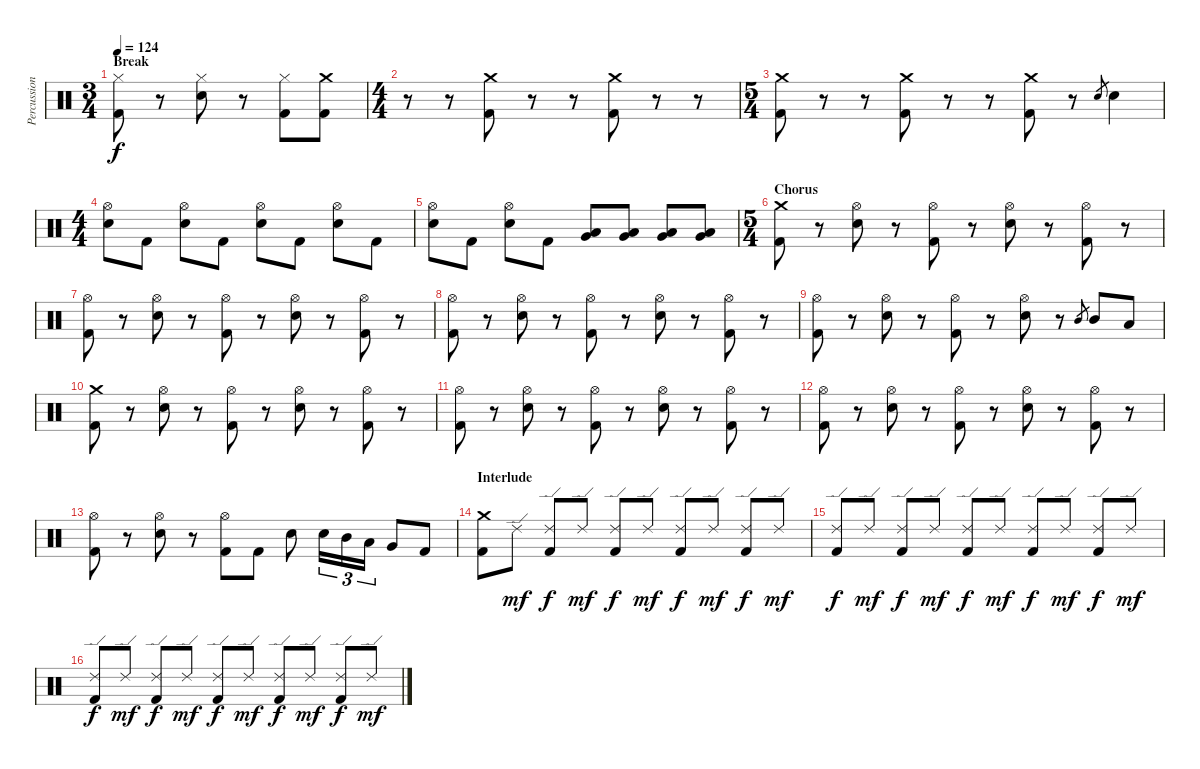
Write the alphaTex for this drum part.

\track ("Percussion" "Percussion") {instrument percussion}
\staff {score}
\articulation defaults
\ts (3 4)
\section ("" "Break")
\tempo 124
\clef neutral
\ks c
("Hi-Hat (closed)" "Kick (hit) 2").8{dy f} r.8 ("Hi-Hat (closed)" "Snare (hit) 2").8 r.8 ("Hi-Hat (closed)" "Kick (hit) 2").8 ("Crash medium (hit)" "Kick (hit) 2").8 |
\ts (4 4)
r.8 r.8 ("Crash medium (hit)" "Kick (hit) 2").8 r.8 r.8 ("Crash medium (hit)" "Kick (hit) 2").8 r.8 r.8 |
\ts (5 4)
("Crash medium (hit)" "Kick (hit) 2").8 r.8 r.8 ("Crash medium (hit)" "Kick (hit) 2").8 r.8 r.8 ("Crash medium (hit)" "Kick (hit) 2").8 r.8 "Snare (hit) 2".8{gr} "Snare (hit) 2".4 |
\ts (4 4)
("Hi-Hat (open)" "Snare (hit) 2").8 "Kick (hit) 2".8 ("Hi-Hat (open)" "Snare (hit) 2").8 "Kick (hit) 2".8 ("Hi-Hat (open)" "Snare (hit) 2").8 "Kick (hit) 2".8 ("Hi-Hat (open)" "Snare (hit) 2").8 "Kick (hit) 2".8 |
("Hi-Hat (open)" "Snare (hit) 2").8 "Kick (hit) 2".8 ("Hi-Hat (open)" "Snare (hit) 2").8 "Kick (hit) 2".8 ("Low Tom (hit)" "Very Low Tom (hit)").8 ("Low Tom (hit)" "Very Low Tom (hit)").8 ("Low Tom (hit)" "Very Low Tom (hit)").8 ("Low Tom (hit)" "Very Low Tom (hit)").8 |
\ts (5 4)
\section ("" "Chorus")
("Crash medium (hit)" "Kick (hit) 2").8 r.8 ("Hi-Hat (open)" "Snare (hit) 2").8 r.8 ("Hi-Hat (open)" "Kick (hit) 2").8 r.8 ("Hi-Hat (open)" "Snare (hit) 2").8 r.8 ("Hi-Hat (open)" "Kick (hit) 2").8 r.8 |
("Hi-Hat (open)" "Kick (hit) 2").8 r.8 ("Hi-Hat (open)" "Snare (hit) 2").8 r.8 ("Hi-Hat (open)" "Kick (hit) 2").8 r.8 ("Hi-Hat (open)" "Snare (hit) 2").8 r.8 ("Hi-Hat (open)" "Kick (hit) 2").8 r.8 |
("Hi-Hat (open)" "Kick (hit) 2").8 r.8 ("Hi-Hat (open)" "Snare (hit) 2").8 r.8 ("Hi-Hat (open)" "Kick (hit) 2").8 r.8 ("Hi-Hat (open)" "Snare (hit) 2").8 r.8 ("Hi-Hat (open)" "Kick (hit) 2").8 r.8 |
("Hi-Hat (open)" "Kick (hit) 2").8 r.8 ("Hi-Hat (open)" "Snare (hit) 2").8 r.8 ("Hi-Hat (open)" "Kick (hit) 2").8 r.8 ("Hi-Hat (open)" "Snare (hit) 2").8 r.8 "Mid Tom (hit)".8{gr} "Mid Tom (hit)".8 "Low Tom (hit)".8 |
("Crash medium (hit)" "Kick (hit) 2").8 r.8 ("Hi-Hat (open)" "Snare (hit) 2").8 r.8 ("Hi-Hat (open)" "Kick (hit) 2").8 r.8 ("Hi-Hat (open)" "Snare (hit) 2").8 r.8 ("Hi-Hat (open)" "Kick (hit) 2").8 r.8 |
("Hi-Hat (open)" "Kick (hit) 2").8 r.8 ("Hi-Hat (open)" "Snare (hit) 2").8 r.8 ("Hi-Hat (open)" "Kick (hit) 2").8 r.8 ("Hi-Hat (open)" "Snare (hit) 2").8 r.8 ("Hi-Hat (open)" "Kick (hit) 2").8 r.8 |
("Hi-Hat (open)" "Kick (hit) 2").8 r.8 ("Hi-Hat (open)" "Snare (hit) 2").8 r.8 ("Hi-Hat (open)" "Kick (hit) 2").8 r.8 ("Hi-Hat (open)" "Snare (hit) 2").8 r.8 ("Hi-Hat (open)" "Kick (hit) 2").8 r.8 |
("Hi-Hat (open)" "Kick (hit) 2").8 r.8 ("Hi-Hat (open)" "Snare (hit) 2").8 r.8 ("Hi-Hat (open)" "Kick (hit) 2").8 "Kick (hit) 2".8 "Snare (hit) 2".8 "Snare (hit) 2".16{tu (3 2)} "Mid Tom (hit)".16{tu (3 2)} "Low Tom (hit)".16{tu (3 2)} "Very Low Tom (hit)".8 "Kick (hit) 2".8 |
\section ("" "Interlude")
("Crash medium (hit)" "Kick (hit) 2").8 "Ride (edge) 2".8{dy mf} ("Ride (edge) 2" "Kick (hit) 2").8{dy f} "Ride (edge) 2".8{dy mf} ("Ride (edge) 2" "Kick (hit) 2").8{dy f} "Ride (edge) 2".8{dy mf} ("Ride (edge) 2" "Kick (hit) 2").8{dy f} "Ride (edge) 2".8{dy mf} ("Ride (edge) 2" "Kick (hit) 2").8{dy f} "Ride (edge) 2".8{dy mf} |
("Ride (edge) 2" "Kick (hit) 2").8{dy f} "Ride (edge) 2".8{dy mf} ("Ride (edge) 2" "Kick (hit) 2").8{dy f} "Ride (edge) 2".8{dy mf} ("Ride (edge) 2" "Kick (hit) 2").8{dy f} "Ride (edge) 2".8{dy mf} ("Ride (edge) 2" "Kick (hit) 2").8{dy f} "Ride (edge) 2".8{dy mf} ("Ride (edge) 2" "Kick (hit) 2").8{dy f} "Ride (edge) 2".8{dy mf} |
("Ride (edge) 2" "Kick (hit) 2").8{dy f} "Ride (edge) 2".8{dy mf} ("Ride (edge) 2" "Kick (hit) 2").8{dy f} "Ride (edge) 2".8{dy mf} ("Ride (edge) 2" "Kick (hit) 2").8{dy f} "Ride (edge) 2".8{dy mf} ("Ride (edge) 2" "Kick (hit) 2").8{dy f} "Ride (edge) 2".8{dy mf} ("Ride (edge) 2" "Kick (hit) 2").8{dy f} "Ride (edge) 2".8{dy mf}
